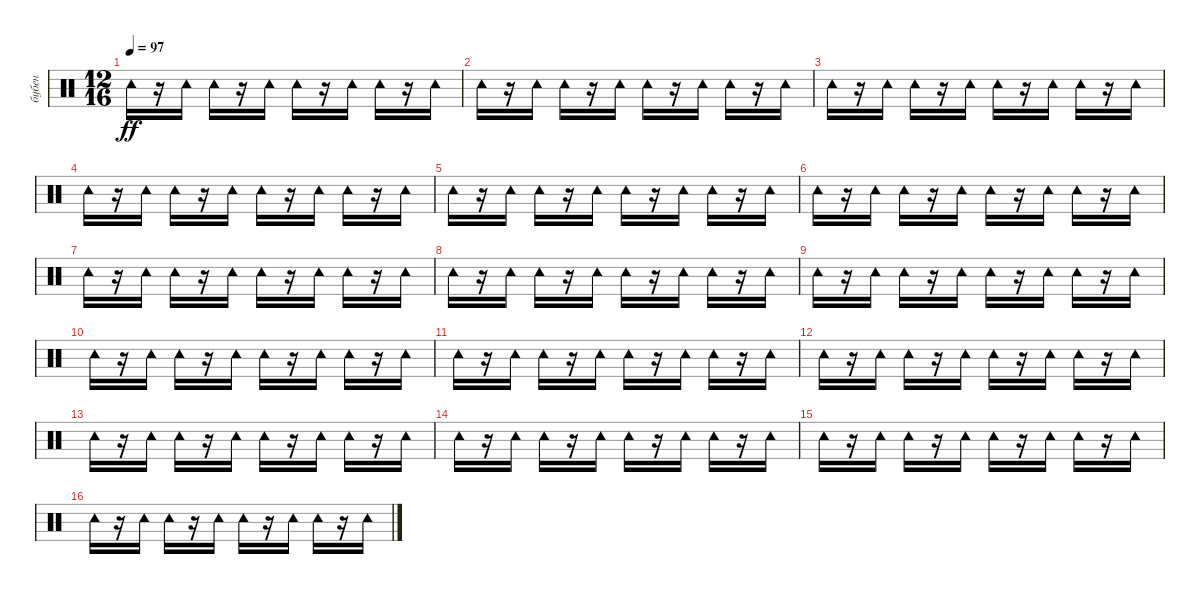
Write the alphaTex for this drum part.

\track ("бубен" "бубен") {instrument percussion}
\staff {score}
\articulation defaults
\ts (12 16)
\tempo 97
\clef neutral
\ks c "Tambourine (hit)".16{dy ff}
r.16 "Tambourine (hit)".16 "Tambourine (hit)".16 r.16 "Tambourine (hit)".16 "Tambourine (hit)".16 r.16 "Tambourine (hit)".16 "Tambourine (hit)".16 r.16 "Tambourine (hit)".16 |
"Tambourine (hit)".16 r.16 "Tambourine (hit)".16 "Tambourine (hit)".16 r.16 "Tambourine (hit)".16 "Tambourine (hit)".16 r.16 "Tambourine (hit)".16 "Tambourine (hit)".16 r.16 "Tambourine (hit)".16 |
"Tambourine (hit)".16 r.16 "Tambourine (hit)".16 "Tambourine (hit)".16 r.16 "Tambourine (hit)".16 "Tambourine (hit)".16 r.16 "Tambourine (hit)".16 "Tambourine (hit)".16 r.16 "Tambourine (hit)".16 |
"Tambourine (hit)".16 r.16 "Tambourine (hit)".16 "Tambourine (hit)".16 r.16 "Tambourine (hit)".16 "Tambourine (hit)".16 r.16 "Tambourine (hit)".16 "Tambourine (hit)".16 r.16 "Tambourine (hit)".16 |
"Tambourine (hit)".16 r.16 "Tambourine (hit)".16 "Tambourine (hit)".16 r.16 "Tambourine (hit)".16 "Tambourine (hit)".16 r.16 "Tambourine (hit)".16 "Tambourine (hit)".16 r.16 "Tambourine (hit)".16 |
"Tambourine (hit)".16 r.16 "Tambourine (hit)".16 "Tambourine (hit)".16 r.16 "Tambourine (hit)".16 "Tambourine (hit)".16 r.16 "Tambourine (hit)".16 "Tambourine (hit)".16 r.16 "Tambourine (hit)".16 |
"Tambourine (hit)".16 r.16 "Tambourine (hit)".16 "Tambourine (hit)".16 r.16 "Tambourine (hit)".16 "Tambourine (hit)".16 r.16 "Tambourine (hit)".16 "Tambourine (hit)".16 r.16 "Tambourine (hit)".16 |
"Tambourine (hit)".16 r.16 "Tambourine (hit)".16 "Tambourine (hit)".16 r.16 "Tambourine (hit)".16 "Tambourine (hit)".16 r.16 "Tambourine (hit)".16 "Tambourine (hit)".16 r.16 "Tambourine (hit)".16 |
"Tambourine (hit)".16 r.16 "Tambourine (hit)".16 "Tambourine (hit)".16 r.16 "Tambourine (hit)".16 "Tambourine (hit)".16 r.16 "Tambourine (hit)".16 "Tambourine (hit)".16 r.16 "Tambourine (hit)".16 |
"Tambourine (hit)".16 r.16 "Tambourine (hit)".16 "Tambourine (hit)".16 r.16 "Tambourine (hit)".16 "Tambourine (hit)".16 r.16 "Tambourine (hit)".16 "Tambourine (hit)".16 r.16 "Tambourine (hit)".16 |
"Tambourine (hit)".16 r.16 "Tambourine (hit)".16 "Tambourine (hit)".16 r.16 "Tambourine (hit)".16 "Tambourine (hit)".16 r.16 "Tambourine (hit)".16 "Tambourine (hit)".16 r.16 "Tambourine (hit)".16 |
"Tambourine (hit)".16 r.16 "Tambourine (hit)".16 "Tambourine (hit)".16 r.16 "Tambourine (hit)".16 "Tambourine (hit)".16 r.16 "Tambourine (hit)".16 "Tambourine (hit)".16 r.16 "Tambourine (hit)".16 |
"Tambourine (hit)".16 r.16 "Tambourine (hit)".16 "Tambourine (hit)".16 r.16 "Tambourine (hit)".16 "Tambourine (hit)".16 r.16 "Tambourine (hit)".16 "Tambourine (hit)".16 r.16 "Tambourine (hit)".16 |
"Tambourine (hit)".16 r.16 "Tambourine (hit)".16 "Tambourine (hit)".16 r.16 "Tambourine (hit)".16 "Tambourine (hit)".16 r.16 "Tambourine (hit)".16 "Tambourine (hit)".16 r.16 "Tambourine (hit)".16 |
"Tambourine (hit)".16 r.16 "Tambourine (hit)".16 "Tambourine (hit)".16 r.16 "Tambourine (hit)".16 "Tambourine (hit)".16 r.16 "Tambourine (hit)".16 "Tambourine (hit)".16 r.16 "Tambourine (hit)".16 |
"Tambourine (hit)".16 r.16 "Tambourine (hit)".16 "Tambourine (hit)".16 r.16 "Tambourine (hit)".16 "Tambourine (hit)".16 r.16 "Tambourine (hit)".16 "Tambourine (hit)".16 r.16 "Tambourine (hit)".16
